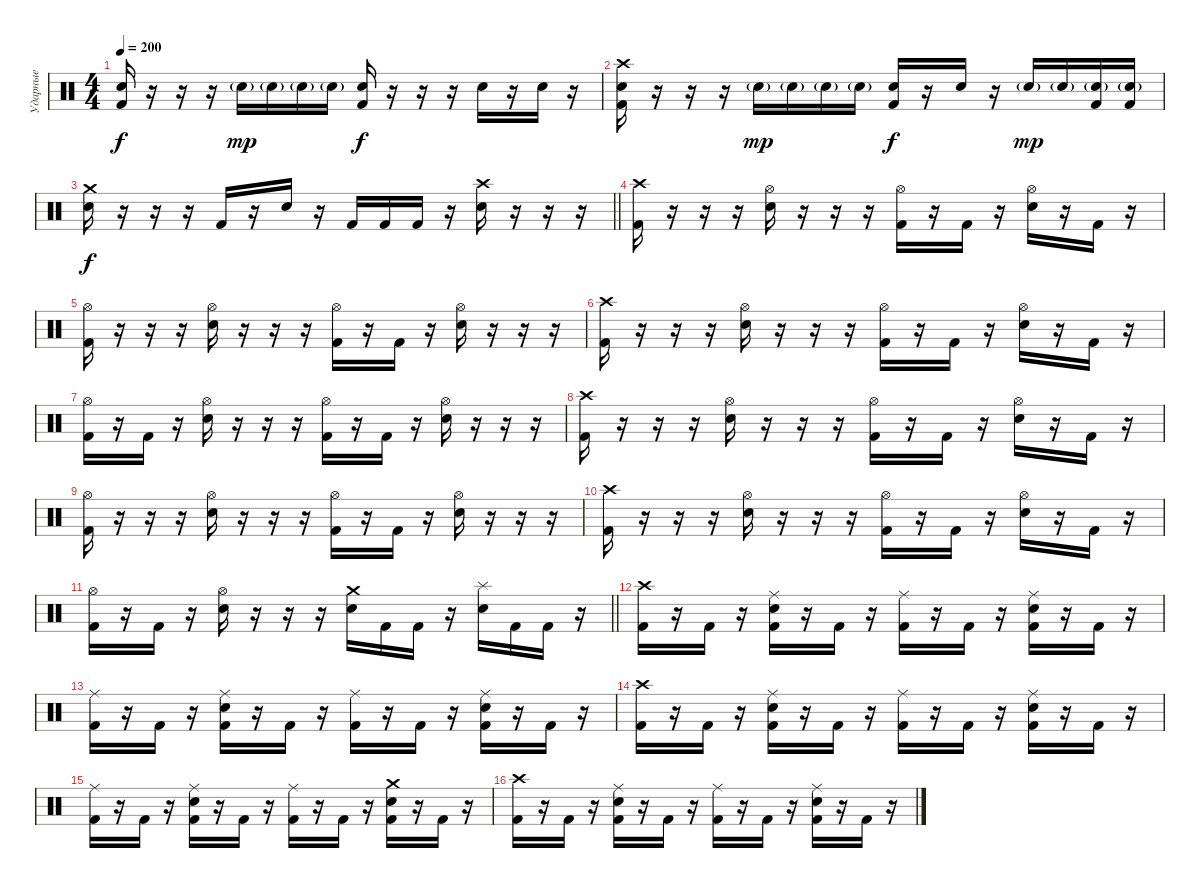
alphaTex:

\track ("Ударные" "Ударные") {instrument percussion}
\staff {score}
\articulation defaults
\ts (4 4)
\tempo 200
\clef neutral
\ks c
("Electric Snare (hit)" "Kick (hit) 2").16{dy f} r.16 r.16 r.16 "Electric Snare (hit)"{g}.16{dy mp} "Electric Snare (hit)"{g}.16 "Electric Snare (hit)"{g}.16 "Electric Snare (hit)"{g}.16 ("Electric Snare (hit)" "Kick (hit) 2").16{dy f} r.16 r.16 r.16 "Electric Snare (hit)".16 r.16 "Electric Snare (hit)".16 r.16 |
("Crash high (hit)" "Electric Snare (hit)" "Kick (hit) 2").16 r.16 r.16 r.16 "Electric Snare (hit)"{g}.16{dy mp} "Electric Snare (hit)"{g}.16 "Electric Snare (hit)"{g}.16 "Electric Snare (hit)"{g}.16 ("Electric Snare (hit)" "Kick (hit) 2").16{dy f} r.16 "Electric Snare (hit)".16 r.16 "Electric Snare (hit)"{g}.16{dy mp} "Electric Snare (hit)"{g}.16 ("Electric Snare (hit)"{g} "Kick (hit) 2").16 ("Electric Snare (hit)"{g} "Kick (hit) 2").16 |
\barLineRight lightlight
("Crash medium (hit)" "Electric Snare (hit)").16{dy f} r.16 r.16 r.16 "Kick (hit) 2".16 r.16 "Electric Snare (hit)".16 r.16 "Kick (hit) 2".16 "Kick (hit) 2".16 "Kick (hit) 2".16 r.16 ("Crash high (hit)" "Electric Snare (hit)").16 r.16 r.16 r.16 |
\section ("" "")
("Crash high (hit)" "Kick (hit) 2").16 r.16 r.16 r.16 ("Hi-Hat (open)" "Electric Snare (hit)").16 r.16 r.16 r.16 ("Hi-Hat (open)" "Kick (hit) 2").16 r.16 "Kick (hit) 2".16 r.16 ("Hi-Hat (open)" "Electric Snare (hit)").16 r.16 "Kick (hit) 2".16 r.16 |
("Hi-Hat (open)" "Kick (hit) 2").16 r.16 r.16 r.16 ("Hi-Hat (open)" "Electric Snare (hit)").16 r.16 r.16 r.16 ("Hi-Hat (open)" "Kick (hit) 2").16 r.16 "Kick (hit) 2".16 r.16 ("Hi-Hat (open)" "Electric Snare (hit)").16 r.16 r.16 r.16 |
("Crash high (hit)" "Kick (hit) 2").16 r.16 r.16 r.16 ("Hi-Hat (open)" "Electric Snare (hit)").16 r.16 r.16 r.16 ("Hi-Hat (open)" "Kick (hit) 2").16 r.16 "Kick (hit) 2".16 r.16 ("Hi-Hat (open)" "Electric Snare (hit)").16 r.16 "Kick (hit) 2".16 r.16 |
("Hi-Hat (open)" "Kick (hit) 2").16 r.16 "Kick (hit) 2".16 r.16 ("Hi-Hat (open)" "Electric Snare (hit)").16 r.16 r.16 r.16 ("Hi-Hat (open)" "Kick (hit) 2").16 r.16 "Kick (hit) 2".16 r.16 ("Hi-Hat (open)" "Electric Snare (hit)").16 r.16 r.16 r.16 |
("Crash high (hit)" "Kick (hit) 2").16 r.16 r.16 r.16 ("Hi-Hat (open)" "Electric Snare (hit)").16 r.16 r.16 r.16 ("Hi-Hat (open)" "Kick (hit) 2").16 r.16 "Kick (hit) 2".16 r.16 ("Hi-Hat (open)" "Electric Snare (hit)").16 r.16 "Kick (hit) 2".16 r.16 |
("Hi-Hat (open)" "Kick (hit) 2").16 r.16 r.16 r.16 ("Hi-Hat (open)" "Electric Snare (hit)").16 r.16 r.16 r.16 ("Hi-Hat (open)" "Kick (hit) 2").16 r.16 "Kick (hit) 2".16 r.16 ("Hi-Hat (open)" "Electric Snare (hit)").16 r.16 r.16 r.16 |
("Crash high (hit)" "Kick (hit) 2").16 r.16 r.16 r.16 ("Hi-Hat (open)" "Electric Snare (hit)").16 r.16 r.16 r.16 ("Hi-Hat (open)" "Kick (hit) 2").16 r.16 "Kick (hit) 2".16 r.16 ("Hi-Hat (open)" "Electric Snare (hit)").16 r.16 "Kick (hit) 2".16 r.16 |
\barLineRight lightlight
("Hi-Hat (open)" "Kick (hit) 2").16 r.16 "Kick (hit) 2".16 r.16 ("Hi-Hat (open)" "Electric Snare (hit)").16 r.16 r.16 r.16 ("Crash medium (hit)" "Electric Snare (hit)").16 "Kick (hit) 2".16 "Kick (hit) 2".16 r.16 ("Splash (hit)" "Electric Snare (hit)").16 "Kick (hit) 2".16 "Kick (hit) 2".16 r.16 |
\section ("" "")
("Crash high (hit)" "Kick (hit) 2").16 r.16 "Kick (hit) 2".16 r.16 ("Ride (middle)" "Electric Snare (hit)" "Kick (hit) 2").16 r.16 "Kick (hit) 2".16 r.16 ("Ride (middle)" "Kick (hit) 2").16 r.16 "Kick (hit) 2".16 r.16 ("Ride (middle)" "Electric Snare (hit)" "Kick (hit) 2").16 r.16 "Kick (hit) 2".16 r.16 |
("Ride (middle)" "Kick (hit) 2").16 r.16 "Kick (hit) 2".16 r.16 ("Ride (middle)" "Electric Snare (hit)" "Kick (hit) 2").16 r.16 "Kick (hit) 2".16 r.16 ("Ride (middle)" "Kick (hit) 2").16 r.16 "Kick (hit) 2".16 r.16 ("Ride (middle)" "Electric Snare (hit)" "Kick (hit) 2").16 r.16 "Kick (hit) 2".16 r.16 |
("Crash high (hit)" "Kick (hit) 2").16 r.16 "Kick (hit) 2".16 r.16 ("Ride (middle)" "Electric Snare (hit)" "Kick (hit) 2").16 r.16 "Kick (hit) 2".16 r.16 ("Ride (middle)" "Kick (hit) 2").16 r.16 "Kick (hit) 2".16 r.16 ("Ride (middle)" "Electric Snare (hit)" "Kick (hit) 2").16 r.16 "Kick (hit) 2".16 r.16 |
("Ride (middle)" "Kick (hit) 2").16 r.16 "Kick (hit) 2".16 r.16 ("Ride (middle)" "Electric Snare (hit)" "Kick (hit) 2").16 r.16 "Kick (hit) 2".16 r.16 ("Ride (middle)" "Kick (hit) 2").16 r.16 "Kick (hit) 2".16 r.16 ("Crash medium (hit)" "Electric Snare (hit)" "Kick (hit) 2").16 r.16 "Kick (hit) 2".16 r.16 |
("Crash high (hit)" "Kick (hit) 2").16 r.16 "Kick (hit) 2".16 r.16 ("Ride (middle)" "Electric Snare (hit)" "Kick (hit) 2").16 r.16 "Kick (hit) 2".16 r.16 ("Ride (middle)" "Kick (hit) 2").16 r.16 "Kick (hit) 2".16 r.16 ("Ride (middle)" "Electric Snare (hit)" "Kick (hit) 2").16 r.16 "Kick (hit) 2".16 r.16
